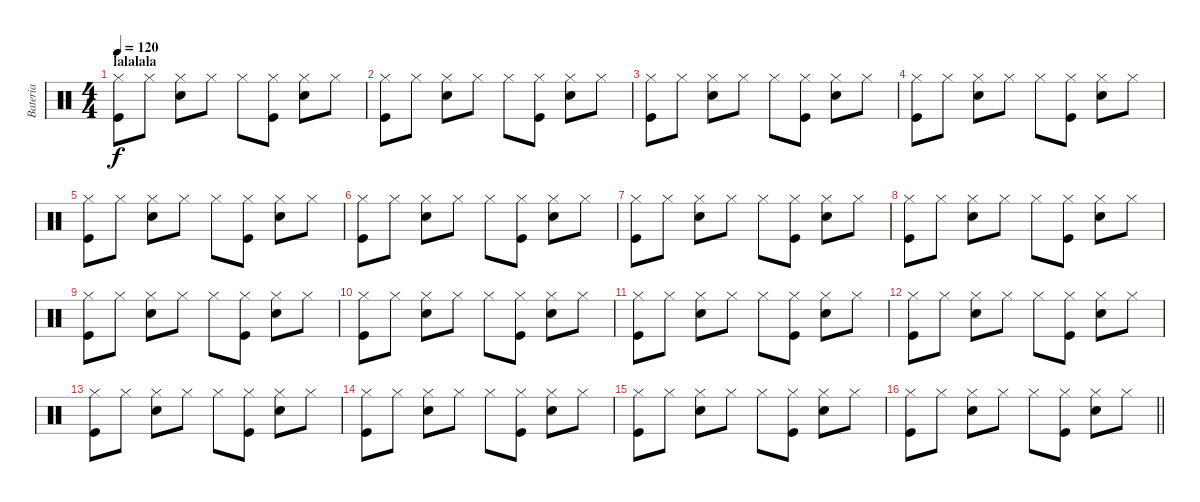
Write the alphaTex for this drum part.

\track ("Bateria" "Bateria") {instrument percussion}
\staff {score}
\articulation defaults
\ts (4 4)
\section ("" "lalalala")
\tempo 120
\clef neutral
\ks c
("Hi-Hat (closed)" "Kick (hit)").8{dy f} "Hi-Hat (closed)".8 ("Hi-Hat (closed)" "Snare (hit) 2").8 "Hi-Hat (closed)".8 "Hi-Hat (closed)".8 ("Hi-Hat (closed)" "Kick (hit)").8 ("Hi-Hat (closed)" "Snare (hit) 2").8 "Hi-Hat (closed)".8 |
("Hi-Hat (closed)" "Kick (hit)").8 "Hi-Hat (closed)".8 ("Hi-Hat (closed)" "Snare (hit) 2").8 "Hi-Hat (closed)".8 "Hi-Hat (closed)".8 ("Hi-Hat (closed)" "Kick (hit)").8 ("Hi-Hat (closed)" "Snare (hit) 2").8 "Hi-Hat (closed)".8 |
("Hi-Hat (closed)" "Kick (hit)").8 "Hi-Hat (closed)".8 ("Hi-Hat (closed)" "Snare (hit) 2").8 "Hi-Hat (closed)".8 "Hi-Hat (closed)".8 ("Hi-Hat (closed)" "Kick (hit)").8 ("Hi-Hat (closed)" "Snare (hit) 2").8 "Hi-Hat (closed)".8 |
("Hi-Hat (closed)" "Kick (hit)").8 "Hi-Hat (closed)".8 ("Hi-Hat (closed)" "Snare (hit) 2").8 "Hi-Hat (closed)".8 "Hi-Hat (closed)".8 ("Hi-Hat (closed)" "Kick (hit)").8 ("Hi-Hat (closed)" "Snare (hit) 2").8 "Hi-Hat (closed)".8 |
("Hi-Hat (closed)" "Kick (hit)").8 "Hi-Hat (closed)".8 ("Hi-Hat (closed)" "Snare (hit) 2").8 "Hi-Hat (closed)".8 "Hi-Hat (closed)".8 ("Hi-Hat (closed)" "Kick (hit)").8 ("Hi-Hat (closed)" "Snare (hit) 2").8 "Hi-Hat (closed)".8 |
("Hi-Hat (closed)" "Kick (hit)").8 "Hi-Hat (closed)".8 ("Hi-Hat (closed)" "Snare (hit) 2").8 "Hi-Hat (closed)".8 "Hi-Hat (closed)".8 ("Hi-Hat (closed)" "Kick (hit)").8 ("Hi-Hat (closed)" "Snare (hit) 2").8 "Hi-Hat (closed)".8 |
("Hi-Hat (closed)" "Kick (hit)").8 "Hi-Hat (closed)".8 ("Hi-Hat (closed)" "Snare (hit) 2").8 "Hi-Hat (closed)".8 "Hi-Hat (closed)".8 ("Hi-Hat (closed)" "Kick (hit)").8 ("Hi-Hat (closed)" "Snare (hit) 2").8 "Hi-Hat (closed)".8 |
("Hi-Hat (closed)" "Kick (hit)").8 "Hi-Hat (closed)".8 ("Hi-Hat (closed)" "Snare (hit) 2").8 "Hi-Hat (closed)".8 "Hi-Hat (closed)".8 ("Hi-Hat (closed)" "Kick (hit)").8 ("Hi-Hat (closed)" "Snare (hit) 2").8 "Hi-Hat (closed)".8 |
("Hi-Hat (closed)" "Kick (hit)").8 "Hi-Hat (closed)".8 ("Hi-Hat (closed)" "Snare (hit) 2").8 "Hi-Hat (closed)".8 "Hi-Hat (closed)".8 ("Hi-Hat (closed)" "Kick (hit)").8 ("Hi-Hat (closed)" "Snare (hit) 2").8 "Hi-Hat (closed)".8 |
("Hi-Hat (closed)" "Kick (hit)").8 "Hi-Hat (closed)".8 ("Hi-Hat (closed)" "Snare (hit) 2").8 "Hi-Hat (closed)".8 "Hi-Hat (closed)".8 ("Hi-Hat (closed)" "Kick (hit)").8 ("Hi-Hat (closed)" "Snare (hit) 2").8 "Hi-Hat (closed)".8 |
("Hi-Hat (closed)" "Kick (hit)").8 "Hi-Hat (closed)".8 ("Hi-Hat (closed)" "Snare (hit) 2").8 "Hi-Hat (closed)".8 "Hi-Hat (closed)".8 ("Hi-Hat (closed)" "Kick (hit)").8 ("Hi-Hat (closed)" "Snare (hit) 2").8 "Hi-Hat (closed)".8 |
("Hi-Hat (closed)" "Kick (hit)").8 "Hi-Hat (closed)".8 ("Hi-Hat (closed)" "Snare (hit) 2").8 "Hi-Hat (closed)".8 "Hi-Hat (closed)".8 ("Hi-Hat (closed)" "Kick (hit)").8 ("Hi-Hat (closed)" "Snare (hit) 2").8 "Hi-Hat (closed)".8 |
("Hi-Hat (closed)" "Kick (hit)").8 "Hi-Hat (closed)".8 ("Hi-Hat (closed)" "Snare (hit) 2").8 "Hi-Hat (closed)".8 "Hi-Hat (closed)".8 ("Hi-Hat (closed)" "Kick (hit)").8 ("Hi-Hat (closed)" "Snare (hit) 2").8 "Hi-Hat (closed)".8 |
("Hi-Hat (closed)" "Kick (hit)").8 "Hi-Hat (closed)".8 ("Hi-Hat (closed)" "Snare (hit) 2").8 "Hi-Hat (closed)".8 "Hi-Hat (closed)".8 ("Hi-Hat (closed)" "Kick (hit)").8 ("Hi-Hat (closed)" "Snare (hit) 2").8 "Hi-Hat (closed)".8 |
("Hi-Hat (closed)" "Kick (hit)").8 "Hi-Hat (closed)".8 ("Hi-Hat (closed)" "Snare (hit) 2").8 "Hi-Hat (closed)".8 "Hi-Hat (closed)".8 ("Hi-Hat (closed)" "Kick (hit)").8 ("Hi-Hat (closed)" "Snare (hit) 2").8 "Hi-Hat (closed)".8 |
\barLineRight lightlight
("Hi-Hat (closed)" "Kick (hit)").8 "Hi-Hat (closed)".8 ("Hi-Hat (closed)" "Snare (hit) 2").8 "Hi-Hat (closed)".8 "Hi-Hat (closed)".8 ("Hi-Hat (closed)" "Kick (hit)").8 ("Hi-Hat (closed)" "Snare (hit) 2").8 "Hi-Hat (closed)".8
